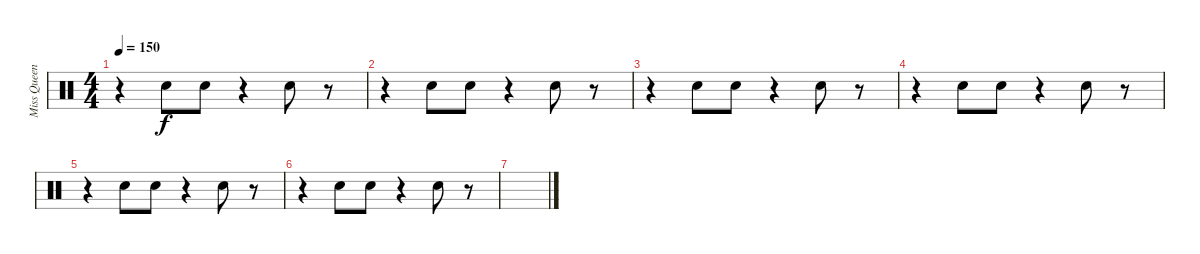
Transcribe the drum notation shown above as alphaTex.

\track ("Miss Queen B(rodie)" "Miss Queen") {instrument percussion}
\staff {score}
\articulation defaults
\ts (4 4)
\tempo 150
\clef neutral
\ks c
r.4{dy f} "Hand Clap (hit)".8 "Hand Clap (hit)".8 r.4 "Hand Clap (hit)".8 r.8 |
r.4 "Hand Clap (hit)".8 "Hand Clap (hit)".8 r.4 "Hand Clap (hit)".8 r.8 |
\section ("" "")
r.4 "Hand Clap (hit)".8 "Hand Clap (hit)".8 r.4 "Hand Clap (hit)".8 r.8 |
r.4 "Hand Clap (hit)".8 "Hand Clap (hit)".8 r.4 "Hand Clap (hit)".8 r.8 |
r.4 "Hand Clap (hit)".8 "Hand Clap (hit)".8 r.4 "Hand Clap (hit)".8 r.8 |
r.4 "Hand Clap (hit)".8 "Hand Clap (hit)".8 r.4 "Hand Clap (hit)".8 r.8 |
\section ("" "")
